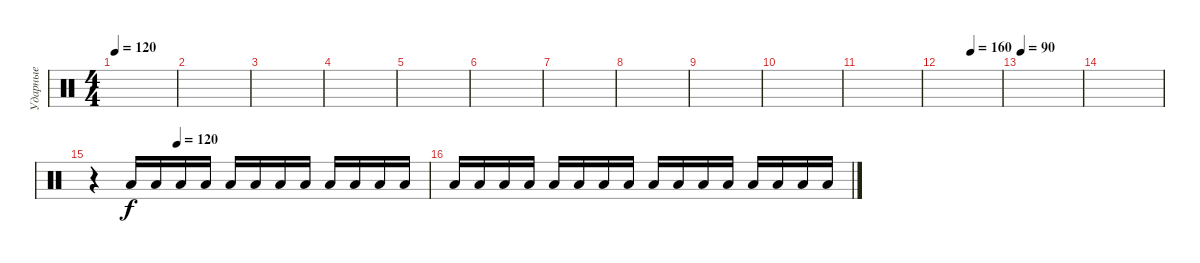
\track ("Ударные" "Ударные") {instrument percussion}
\staff {score}
\articulation defaults
\ts (4 4)
\tempo 120
\clef neutral
\ks c
|
|
|
|
|
|
|
|
|
|
|
\tempo (160 0.5)
|
\tempo 90
|
|
\tempo (120 0.25)
r.4 "Low Floor Tom (hit)".16 "Low Floor Tom (hit)".16 "Low Floor Tom (hit)".16 "Low Floor Tom (hit)".16 "Low Floor Tom (hit)".16 "Low Floor Tom (hit)".16 "Low Floor Tom (hit)".16 "Low Floor Tom (hit)".16 "Low Floor Tom (hit)".16 "Low Floor Tom (hit)".16 "Low Floor Tom (hit)".16 "Low Floor Tom (hit)".16 |
"Low Floor Tom (hit)".16 "Low Floor Tom (hit)".16 "Low Floor Tom (hit)".16 "Low Floor Tom (hit)".16 "Low Floor Tom (hit)".16 "Low Floor Tom (hit)".16 "Low Floor Tom (hit)".16 "Low Floor Tom (hit)".16 "Low Floor Tom (hit)".16 "Low Floor Tom (hit)".16 "Low Floor Tom (hit)".16 "Low Floor Tom (hit)".16 "Low Floor Tom (hit)".16 "Low Floor Tom (hit)".16 "Low Floor Tom (hit)".16 "Low Floor Tom (hit)".16
